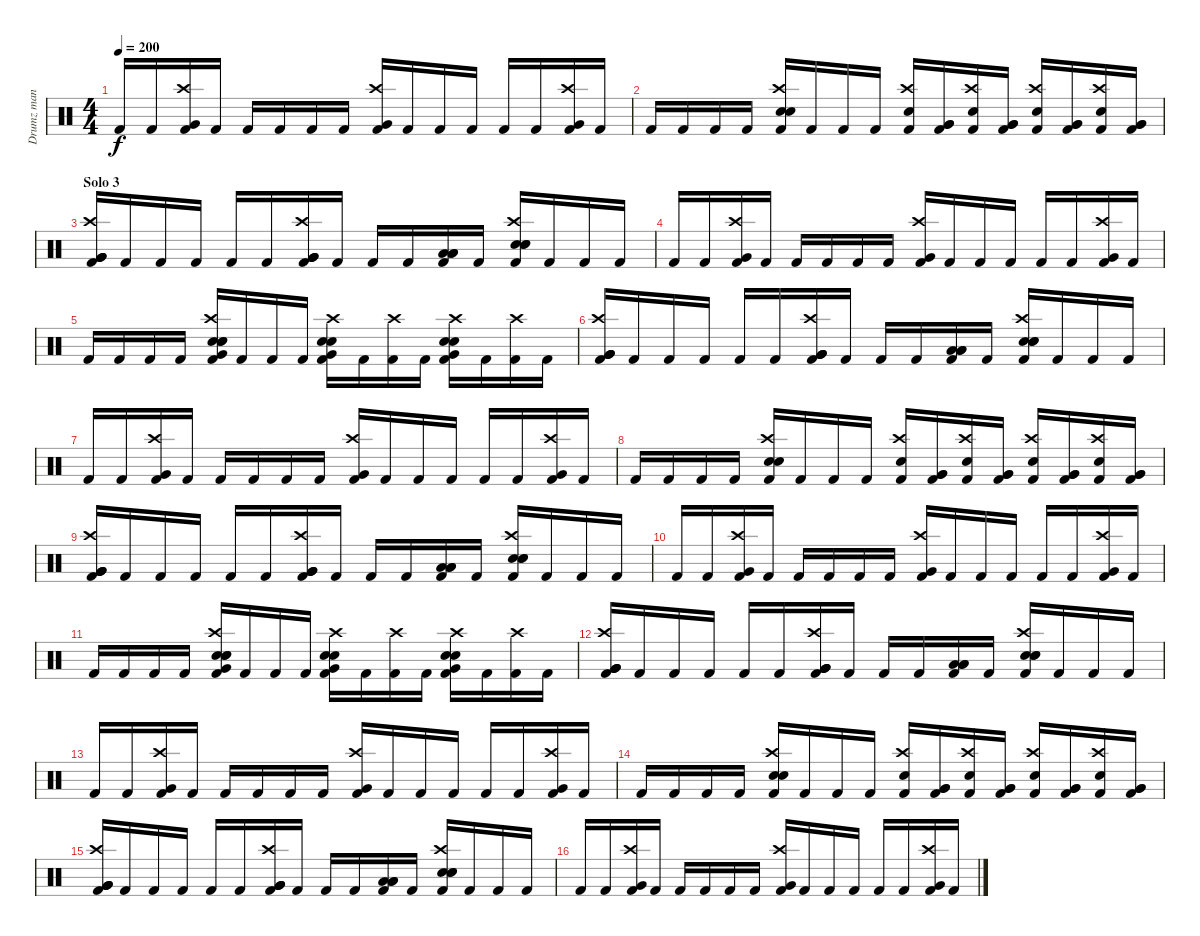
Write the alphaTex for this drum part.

\track ("Drumz man" "Drumz man") {instrument percussion}
\staff {score}
\articulation defaults
\ts (4 4)
\tempo 200
\clef neutral
\ks c "Kick (hit) 2".16{dy f} "Kick (hit) 2".16
("Crash high (hit)" "Kick (hit) 2" "Very Low Tom (hit)").16 "Kick (hit) 2".16 "Kick (hit) 2".16 "Kick (hit) 2".16 "Kick (hit) 2".16 "Kick (hit) 2".16 ("Crash high (hit)" "Kick (hit) 2" "Very Low Tom (hit)").16 "Kick (hit) 2".16 "Kick (hit) 2".16 "Kick (hit) 2".16 "Kick (hit) 2".16 "Kick (hit) 2".16 ("Crash high (hit)" "Kick (hit) 2" "Very Low Tom (hit)").16 "Kick (hit) 2".16 |
"Kick (hit) 2".16 "Kick (hit) 2".16 "Kick (hit) 2".16 "Kick (hit) 2".16 ("Crash high (hit)" "Kick (hit) 2" "Snare (hit) 2" "Snare (hit) 2").16 "Kick (hit) 2".16 "Kick (hit) 2".16 "Kick (hit) 2".16 ("Crash high (hit)" "Kick (hit) 2" "Electric Snare (hit)").16 ("Kick (hit) 2" "Very Low Tom (hit)" "Very Low Tom (hit)").16 ("Crash high (hit)" "Kick (hit) 2" "Electric Snare (hit)").16 ("Kick (hit) 2" "Very Low Tom (hit)" "Very Low Tom (hit)").16 ("Crash high (hit)" "Kick (hit) 2" "Electric Snare (hit)").16 ("Kick (hit) 2" "Very Low Tom (hit)" "Very Low Tom (hit)").16 ("Crash high (hit)" "Kick (hit) 2" "Electric Snare (hit)").16 ("Kick (hit) 2" "Very Low Tom (hit)" "Very Low Tom (hit)").16 |
\section ("" "Solo 3")
("Crash high (hit)" "Kick (hit) 2" "Very Low Tom (hit)" "Very Low Tom (hit)" "Very Low Tom (hit)").16 "Kick (hit) 2".16 "Kick (hit) 2".16 "Kick (hit) 2".16 "Kick (hit) 2".16 "Kick (hit) 2".16 ("Crash high (hit)" "Kick (hit) 2" "Very Low Tom (hit)" "Very Low Tom (hit)" "Very Low Tom (hit)").16 "Kick (hit) 2".16 "Kick (hit) 2".16 "Kick (hit) 2".16 ("Kick (hit) 2" "Low Floor Tom (hit)" "Low Floor Tom (hit)" "Low Floor Tom (hit)").16 "Kick (hit) 2".16 ("Crash high (hit)" "Snare (hit) 2" "Kick (hit) 2" "Snare (hit) 2" "Electric Snare (hit)").16 "Kick (hit) 2".16 "Kick (hit) 2".16 "Kick (hit) 2".16 |
"Kick (hit) 2".16 "Kick (hit) 2".16 ("Crash high (hit)" "Kick (hit) 2" "Very Low Tom (hit)").16 "Kick (hit) 2".16 "Kick (hit) 2".16 "Kick (hit) 2".16 "Kick (hit) 2".16 "Kick (hit) 2".16 ("Crash high (hit)" "Kick (hit) 2" "Very Low Tom (hit)").16 "Kick (hit) 2".16 "Kick (hit) 2".16 "Kick (hit) 2".16 "Kick (hit) 2".16 "Kick (hit) 2".16 ("Crash high (hit)" "Kick (hit) 2" "Very Low Tom (hit)").16 "Kick (hit) 2".16 |
"Kick (hit) 2".16 "Kick (hit) 2".16 "Kick (hit) 2".16 "Kick (hit) 2".16 ("Crash high (hit)" "Very Low Tom (hit)" "Kick (hit) 2" "Snare (hit) 2" "Snare (hit) 2" "Electric Snare (hit)").16 "Kick (hit) 2".16 "Kick (hit) 2".16 "Kick (hit) 2".16 ("Crash high (hit)" "Kick (hit) 2" "Very Low Tom (hit)" "Electric Snare (hit)" "Electric Snare (hit)").16 "Kick (hit) 2".16 ("Crash high (hit)" "Kick (hit) 2").16 "Kick (hit) 2".16 ("Crash high (hit)" "Kick (hit) 2" "Very Low Tom (hit)" "Electric Snare (hit)" "Electric Snare (hit)").16 "Kick (hit) 2".16 ("Crash high (hit)" "Kick (hit) 2").16 "Kick (hit) 2".16 |
("Crash high (hit)" "Kick (hit) 2" "Very Low Tom (hit)" "Very Low Tom (hit)" "Very Low Tom (hit)").16 "Kick (hit) 2".16 "Kick (hit) 2".16 "Kick (hit) 2".16 "Kick (hit) 2".16 "Kick (hit) 2".16 ("Crash high (hit)" "Kick (hit) 2" "Very Low Tom (hit)" "Very Low Tom (hit)" "Very Low Tom (hit)").16 "Kick (hit) 2".16 "Kick (hit) 2".16 "Kick (hit) 2".16 ("Kick (hit) 2" "Low Floor Tom (hit)" "Low Floor Tom (hit)" "Low Floor Tom (hit)").16 "Kick (hit) 2".16 ("Crash high (hit)" "Snare (hit) 2" "Kick (hit) 2" "Snare (hit) 2" "Electric Snare (hit)").16 "Kick (hit) 2".16 "Kick (hit) 2".16 "Kick (hit) 2".16 |
"Kick (hit) 2".16 "Kick (hit) 2".16 ("Crash high (hit)" "Kick (hit) 2" "Very Low Tom (hit)").16 "Kick (hit) 2".16 "Kick (hit) 2".16 "Kick (hit) 2".16 "Kick (hit) 2".16 "Kick (hit) 2".16 ("Crash high (hit)" "Kick (hit) 2" "Very Low Tom (hit)").16 "Kick (hit) 2".16 "Kick (hit) 2".16 "Kick (hit) 2".16 "Kick (hit) 2".16 "Kick (hit) 2".16 ("Crash high (hit)" "Kick (hit) 2" "Very Low Tom (hit)").16 "Kick (hit) 2".16 |
"Kick (hit) 2".16 "Kick (hit) 2".16 "Kick (hit) 2".16 "Kick (hit) 2".16 ("Crash high (hit)" "Kick (hit) 2" "Snare (hit) 2" "Snare (hit) 2").16 "Kick (hit) 2".16 "Kick (hit) 2".16 "Kick (hit) 2".16 ("Crash high (hit)" "Kick (hit) 2" "Electric Snare (hit)").16 ("Kick (hit) 2" "Very Low Tom (hit)" "Very Low Tom (hit)").16 ("Crash high (hit)" "Kick (hit) 2" "Electric Snare (hit)").16 ("Kick (hit) 2" "Very Low Tom (hit)" "Very Low Tom (hit)").16 ("Crash high (hit)" "Kick (hit) 2" "Electric Snare (hit)").16 ("Kick (hit) 2" "Very Low Tom (hit)" "Very Low Tom (hit)").16 ("Crash high (hit)" "Kick (hit) 2" "Electric Snare (hit)").16 ("Kick (hit) 2" "Very Low Tom (hit)" "Very Low Tom (hit)").16 |
("Crash high (hit)" "Kick (hit) 2" "Very Low Tom (hit)" "Very Low Tom (hit)" "Very Low Tom (hit)").16 "Kick (hit) 2".16 "Kick (hit) 2".16 "Kick (hit) 2".16 "Kick (hit) 2".16 "Kick (hit) 2".16 ("Crash high (hit)" "Kick (hit) 2" "Very Low Tom (hit)" "Very Low Tom (hit)" "Very Low Tom (hit)").16 "Kick (hit) 2".16 "Kick (hit) 2".16 "Kick (hit) 2".16 ("Kick (hit) 2" "Low Floor Tom (hit)" "Low Floor Tom (hit)" "Low Floor Tom (hit)").16 "Kick (hit) 2".16 ("Crash high (hit)" "Snare (hit) 2" "Kick (hit) 2" "Snare (hit) 2" "Electric Snare (hit)").16 "Kick (hit) 2".16 "Kick (hit) 2".16 "Kick (hit) 2".16 |
"Kick (hit) 2".16 "Kick (hit) 2".16 ("Crash high (hit)" "Kick (hit) 2" "Very Low Tom (hit)").16 "Kick (hit) 2".16 "Kick (hit) 2".16 "Kick (hit) 2".16 "Kick (hit) 2".16 "Kick (hit) 2".16 ("Crash high (hit)" "Kick (hit) 2" "Very Low Tom (hit)").16 "Kick (hit) 2".16 "Kick (hit) 2".16 "Kick (hit) 2".16 "Kick (hit) 2".16 "Kick (hit) 2".16 ("Crash high (hit)" "Kick (hit) 2" "Very Low Tom (hit)").16 "Kick (hit) 2".16 |
"Kick (hit) 2".16 "Kick (hit) 2".16 "Kick (hit) 2".16 "Kick (hit) 2".16 ("Crash high (hit)" "Very Low Tom (hit)" "Kick (hit) 2" "Snare (hit) 2" "Snare (hit) 2" "Electric Snare (hit)").16 "Kick (hit) 2".16 "Kick (hit) 2".16 "Kick (hit) 2".16 ("Crash high (hit)" "Kick (hit) 2" "Very Low Tom (hit)" "Electric Snare (hit)" "Electric Snare (hit)").16 "Kick (hit) 2".16 ("Crash high (hit)" "Kick (hit) 2").16 "Kick (hit) 2".16 ("Crash high (hit)" "Kick (hit) 2" "Very Low Tom (hit)" "Electric Snare (hit)" "Electric Snare (hit)").16 "Kick (hit) 2".16 ("Crash high (hit)" "Kick (hit) 2").16 "Kick (hit) 2".16 |
("Crash high (hit)" "Kick (hit) 2" "Very Low Tom (hit)" "Very Low Tom (hit)" "Very Low Tom (hit)").16 "Kick (hit) 2".16 "Kick (hit) 2".16 "Kick (hit) 2".16 "Kick (hit) 2".16 "Kick (hit) 2".16 ("Crash high (hit)" "Kick (hit) 2" "Very Low Tom (hit)" "Very Low Tom (hit)" "Very Low Tom (hit)").16 "Kick (hit) 2".16 "Kick (hit) 2".16 "Kick (hit) 2".16 ("Kick (hit) 2" "Low Floor Tom (hit)" "Low Floor Tom (hit)" "Low Floor Tom (hit)").16 "Kick (hit) 2".16 ("Crash high (hit)" "Snare (hit) 2" "Kick (hit) 2" "Snare (hit) 2" "Electric Snare (hit)").16 "Kick (hit) 2".16 "Kick (hit) 2".16 "Kick (hit) 2".16 |
"Kick (hit) 2".16 "Kick (hit) 2".16 ("Crash high (hit)" "Kick (hit) 2" "Very Low Tom (hit)").16 "Kick (hit) 2".16 "Kick (hit) 2".16 "Kick (hit) 2".16 "Kick (hit) 2".16 "Kick (hit) 2".16 ("Crash high (hit)" "Kick (hit) 2" "Very Low Tom (hit)").16 "Kick (hit) 2".16 "Kick (hit) 2".16 "Kick (hit) 2".16 "Kick (hit) 2".16 "Kick (hit) 2".16 ("Crash high (hit)" "Kick (hit) 2" "Very Low Tom (hit)").16 "Kick (hit) 2".16 |
"Kick (hit) 2".16 "Kick (hit) 2".16 "Kick (hit) 2".16 "Kick (hit) 2".16 ("Crash high (hit)" "Kick (hit) 2" "Snare (hit) 2" "Snare (hit) 2").16 "Kick (hit) 2".16 "Kick (hit) 2".16 "Kick (hit) 2".16 ("Crash high (hit)" "Kick (hit) 2" "Electric Snare (hit)").16 ("Kick (hit) 2" "Very Low Tom (hit)" "Very Low Tom (hit)").16 ("Crash high (hit)" "Kick (hit) 2" "Electric Snare (hit)").16 ("Kick (hit) 2" "Very Low Tom (hit)" "Very Low Tom (hit)").16 ("Crash high (hit)" "Kick (hit) 2" "Electric Snare (hit)").16 ("Kick (hit) 2" "Very Low Tom (hit)" "Very Low Tom (hit)").16 ("Crash high (hit)" "Kick (hit) 2" "Electric Snare (hit)").16 ("Kick (hit) 2" "Very Low Tom (hit)" "Very Low Tom (hit)").16 |
("Crash high (hit)" "Kick (hit) 2" "Very Low Tom (hit)" "Very Low Tom (hit)" "Very Low Tom (hit)").16 "Kick (hit) 2".16 "Kick (hit) 2".16 "Kick (hit) 2".16 "Kick (hit) 2".16 "Kick (hit) 2".16 ("Crash high (hit)" "Kick (hit) 2" "Very Low Tom (hit)" "Very Low Tom (hit)" "Very Low Tom (hit)").16 "Kick (hit) 2".16 "Kick (hit) 2".16 "Kick (hit) 2".16 ("Kick (hit) 2" "Low Floor Tom (hit)" "Low Floor Tom (hit)" "Low Floor Tom (hit)").16 "Kick (hit) 2".16 ("Crash high (hit)" "Snare (hit) 2" "Kick (hit) 2" "Snare (hit) 2" "Electric Snare (hit)").16 "Kick (hit) 2".16 "Kick (hit) 2".16 "Kick (hit) 2".16 |
"Kick (hit) 2".16 "Kick (hit) 2".16 ("Crash high (hit)" "Kick (hit) 2" "Very Low Tom (hit)").16 "Kick (hit) 2".16 "Kick (hit) 2".16 "Kick (hit) 2".16 "Kick (hit) 2".16 "Kick (hit) 2".16 ("Crash high (hit)" "Kick (hit) 2" "Very Low Tom (hit)").16 "Kick (hit) 2".16 "Kick (hit) 2".16 "Kick (hit) 2".16 "Kick (hit) 2".16 "Kick (hit) 2".16 ("Crash high (hit)" "Kick (hit) 2" "Very Low Tom (hit)").16 "Kick (hit) 2".16
